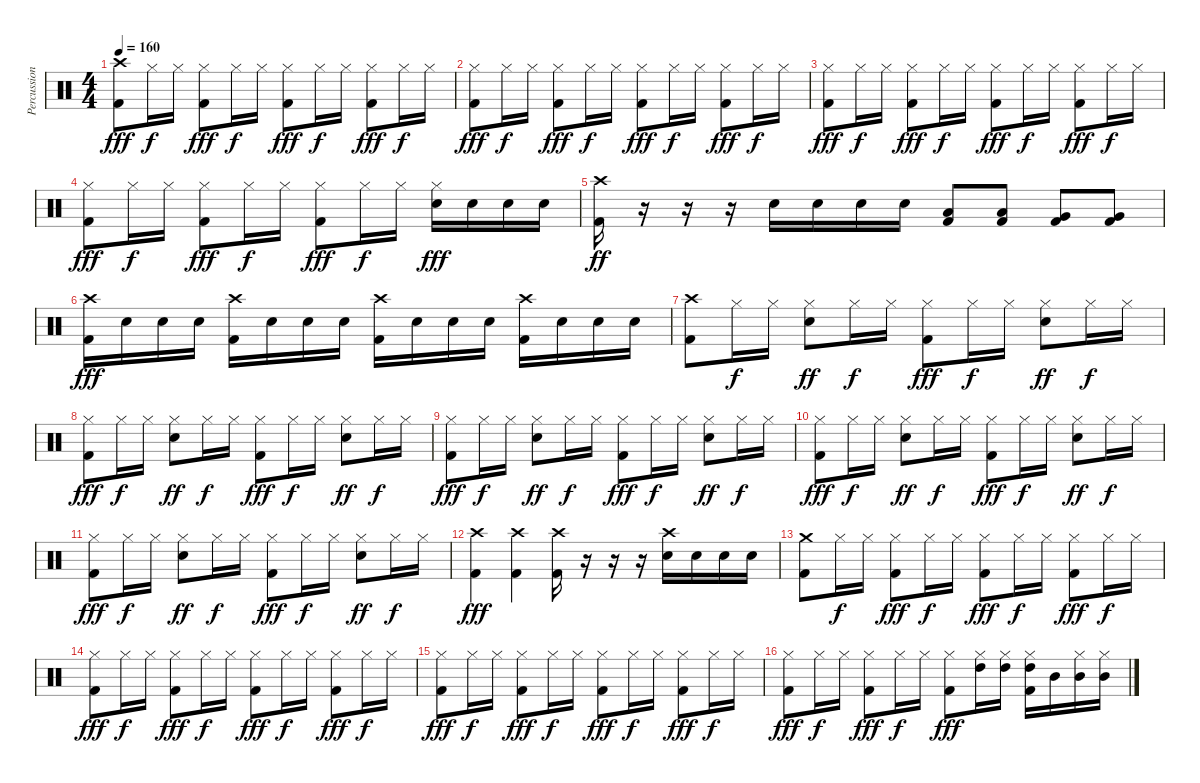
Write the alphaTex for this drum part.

\track ("Percussions" "Percussion") {instrument percussion}
\staff {score}
\articulation defaults
\ts (4 4)
\tempo 160
\clef neutral
\ks c
("Crash high (hit)" "Kick (hit) 2").8{dy fff} "Hi-Hat (closed)".16{dy f} "Hi-Hat (closed)".16 ("Hi-Hat (closed)" "Kick (hit) 2").8{dy fff} "Hi-Hat (closed)".16{dy f} "Hi-Hat (closed)".16 ("Hi-Hat (closed)" "Kick (hit) 2").8{dy fff} "Hi-Hat (closed)".16{dy f} "Hi-Hat (closed)".16 ("Hi-Hat (closed)" "Kick (hit) 2").8{dy fff} "Hi-Hat (closed)".16{dy f} "Hi-Hat (closed)".16 |
("Hi-Hat (closed)" "Kick (hit) 2").8{dy fff} "Hi-Hat (closed)".16{dy f} "Hi-Hat (closed)".16 ("Hi-Hat (closed)" "Kick (hit) 2").8{dy fff} "Hi-Hat (closed)".16{dy f} "Hi-Hat (closed)".16 ("Hi-Hat (closed)" "Kick (hit) 2").8{dy fff} "Hi-Hat (closed)".16{dy f} "Hi-Hat (closed)".16 ("Hi-Hat (closed)" "Kick (hit) 2").8{dy fff} "Hi-Hat (closed)".16{dy f} "Hi-Hat (closed)".16 |
("Hi-Hat (closed)" "Kick (hit) 2").8{dy fff} "Hi-Hat (closed)".16{dy f} "Hi-Hat (closed)".16 ("Hi-Hat (closed)" "Kick (hit) 2").8{dy fff} "Hi-Hat (closed)".16{dy f} "Hi-Hat (closed)".16 ("Hi-Hat (closed)" "Kick (hit) 2").8{dy fff} "Hi-Hat (closed)".16{dy f} "Hi-Hat (closed)".16 ("Hi-Hat (closed)" "Kick (hit) 2").8{dy fff} "Hi-Hat (closed)".16{dy f} "Hi-Hat (closed)".16 |
("Hi-Hat (closed)" "Kick (hit) 2").8{dy fff} "Hi-Hat (closed)".16{dy f} "Hi-Hat (closed)".16 ("Hi-Hat (closed)" "Kick (hit) 2").8{dy fff} "Hi-Hat (closed)".16{dy f} "Hi-Hat (closed)".16 ("Hi-Hat (closed)" "Kick (hit) 2").8{dy fff} "Hi-Hat (closed)".16{dy f} "Hi-Hat (closed)".16 ("Hi-Hat (closed)" "Electric Snare (hit)").16{dy fff} "Electric Snare (hit)".16 "Electric Snare (hit)".16 "Electric Snare (hit)".16 |
("Crash high (hit)" "Kick (hit) 2").16{dy ff} r.16 r.16 r.16 "Snare (hit) 2".16 "Snare (hit) 2".16 "Snare (hit) 2".16 "Snare (hit) 2".16 ("Low Tom (hit)" "Kick (hit) 2").8 ("Low Tom (hit)" "Kick (hit) 2").8 ("Very Low Tom (hit)" "Kick (hit) 2").8 ("Very Low Tom (hit)" "Kick (hit) 2").8 |
("Crash high (hit)" "Kick (hit) 2").16{dy fff} "Electric Snare (hit)".16 "Electric Snare (hit)".16 "Electric Snare (hit)".16 ("Crash high (hit)" "Kick (hit) 2").16 "Electric Snare (hit)".16 "Electric Snare (hit)".16 "Electric Snare (hit)".16 ("Crash high (hit)" "Kick (hit) 2").16 "Electric Snare (hit)".16 "Electric Snare (hit)".16 "Electric Snare (hit)".16 ("Crash high (hit)" "Kick (hit) 2").16 "Electric Snare (hit)".16 "Electric Snare (hit)".16 "Electric Snare (hit)".16 |
("Crash high (hit)" "Kick (hit) 2").8 "Hi-Hat (closed)".16{dy f} "Hi-Hat (closed)".16 ("Hi-Hat (closed)" "Electric Snare (hit)").8{dy ff} "Hi-Hat (closed)".16{dy f} "Hi-Hat (closed)".16 ("Hi-Hat (closed)" "Kick (hit) 2").8{dy fff} "Hi-Hat (closed)".16{dy f} "Hi-Hat (closed)".16 ("Hi-Hat (closed)" "Electric Snare (hit)").8{dy ff} "Hi-Hat (closed)".16{dy f} "Hi-Hat (closed)".16 |
("Hi-Hat (closed)" "Kick (hit) 2").8{dy fff} "Hi-Hat (closed)".16{dy f} "Hi-Hat (closed)".16 ("Hi-Hat (closed)" "Electric Snare (hit)").8{dy ff} "Hi-Hat (closed)".16{dy f} "Hi-Hat (closed)".16 ("Hi-Hat (closed)" "Kick (hit) 2").8{dy fff} "Hi-Hat (closed)".16{dy f} "Hi-Hat (closed)".16 ("Hi-Hat (closed)" "Electric Snare (hit)").8{dy ff} "Hi-Hat (closed)".16{dy f} "Hi-Hat (closed)".16 |
("Hi-Hat (closed)" "Kick (hit) 2").8{dy fff} "Hi-Hat (closed)".16{dy f} "Hi-Hat (closed)".16 ("Hi-Hat (closed)" "Electric Snare (hit)").8{dy ff} "Hi-Hat (closed)".16{dy f} "Hi-Hat (closed)".16 ("Hi-Hat (closed)" "Kick (hit) 2").8{dy fff} "Hi-Hat (closed)".16{dy f} "Hi-Hat (closed)".16 ("Hi-Hat (closed)" "Electric Snare (hit)").8{dy ff} "Hi-Hat (closed)".16{dy f} "Hi-Hat (closed)".16 |
("Hi-Hat (closed)" "Kick (hit) 2").8{dy fff} "Hi-Hat (closed)".16{dy f} "Hi-Hat (closed)".16 ("Hi-Hat (closed)" "Electric Snare (hit)").8{dy ff} "Hi-Hat (closed)".16{dy f} "Hi-Hat (closed)".16 ("Hi-Hat (closed)" "Kick (hit) 2").8{dy fff} "Hi-Hat (closed)".16{dy f} "Hi-Hat (closed)".16 ("Hi-Hat (closed)" "Electric Snare (hit)").8{dy ff} "Hi-Hat (closed)".16{dy f} "Hi-Hat (closed)".16 |
("Hi-Hat (closed)" "Kick (hit) 2").8{dy fff} "Hi-Hat (closed)".16{dy f} "Hi-Hat (closed)".16 ("Hi-Hat (closed)" "Electric Snare (hit)").8{dy ff} "Hi-Hat (closed)".16{dy f} "Hi-Hat (closed)".16 ("Hi-Hat (closed)" "Kick (hit) 2").8{dy fff} "Hi-Hat (closed)".16{dy f} "Hi-Hat (closed)".16 ("Hi-Hat (closed)" "Electric Snare (hit)").8{dy ff} "Hi-Hat (closed)".16{dy f} "Hi-Hat (closed)".16 |
("Crash high (hit)" "Kick (hit) 2").4{dy fff} ("Crash high (hit)" "Kick (hit) 2").4 ("Crash high (hit)" "Kick (hit) 2").16 r.16 r.16 r.16 ("Crash high (hit)" "Electric Snare (hit)").16 "Electric Snare (hit)".16 "Electric Snare (hit)".16 "Electric Snare (hit)".16 |
("Crash medium (hit)" "Kick (hit) 2").8 "Hi-Hat (closed)".16{dy f} "Hi-Hat (closed)".16 ("Hi-Hat (closed)" "Kick (hit) 2").8{dy fff} "Hi-Hat (closed)".16{dy f} "Hi-Hat (closed)".16 ("Hi-Hat (closed)" "Kick (hit) 2").8{dy fff} "Hi-Hat (closed)".16{dy f} "Hi-Hat (closed)".16 ("Hi-Hat (closed)" "Kick (hit) 2").8{dy fff} "Hi-Hat (closed)".16{dy f} "Hi-Hat (closed)".16 |
("Hi-Hat (closed)" "Kick (hit) 2").8{dy fff} "Hi-Hat (closed)".16{dy f} "Hi-Hat (closed)".16 ("Hi-Hat (closed)" "Kick (hit) 2").8{dy fff} "Hi-Hat (closed)".16{dy f} "Hi-Hat (closed)".16 ("Hi-Hat (closed)" "Kick (hit) 2").8{dy fff} "Hi-Hat (closed)".16{dy f} "Hi-Hat (closed)".16 ("Hi-Hat (closed)" "Kick (hit) 2").8{dy fff} "Hi-Hat (closed)".16{dy f} "Hi-Hat (closed)".16 |
("Hi-Hat (closed)" "Kick (hit) 2").8{dy fff} "Hi-Hat (closed)".16{dy f} "Hi-Hat (closed)".16 ("Hi-Hat (closed)" "Kick (hit) 2").8{dy fff} "Hi-Hat (closed)".16{dy f} "Hi-Hat (closed)".16 ("Hi-Hat (closed)" "Kick (hit) 2").8{dy fff} "Hi-Hat (closed)".16{dy f} "Hi-Hat (closed)".16 ("Hi-Hat (closed)" "Kick (hit) 2").8{dy fff} "Hi-Hat (closed)".16{dy f} "Hi-Hat (closed)".16 |
("Hi-Hat (closed)" "Kick (hit) 2").8{dy fff} "Hi-Hat (closed)".16{dy f} "Hi-Hat (closed)".16 ("Hi-Hat (closed)" "Kick (hit) 2").8{dy fff} "Hi-Hat (closed)".16{dy f} "Hi-Hat (closed)".16 ("Hi-Hat (closed)" "Kick (hit) 2").8{dy fff} ("Hi-Hat (closed)" "High Tom (hit)").16 ("Hi-Hat (closed)" "High Tom (hit)").16 ("Hi-Hat (closed)" "High Tom (hit)" "Kick (hit) 2").16 "Mid Tom (hit)".16 ("Hi-Hat (closed)" "Mid Tom (hit)").16 ("Hi-Hat (closed)" "Mid Tom (hit)").16
